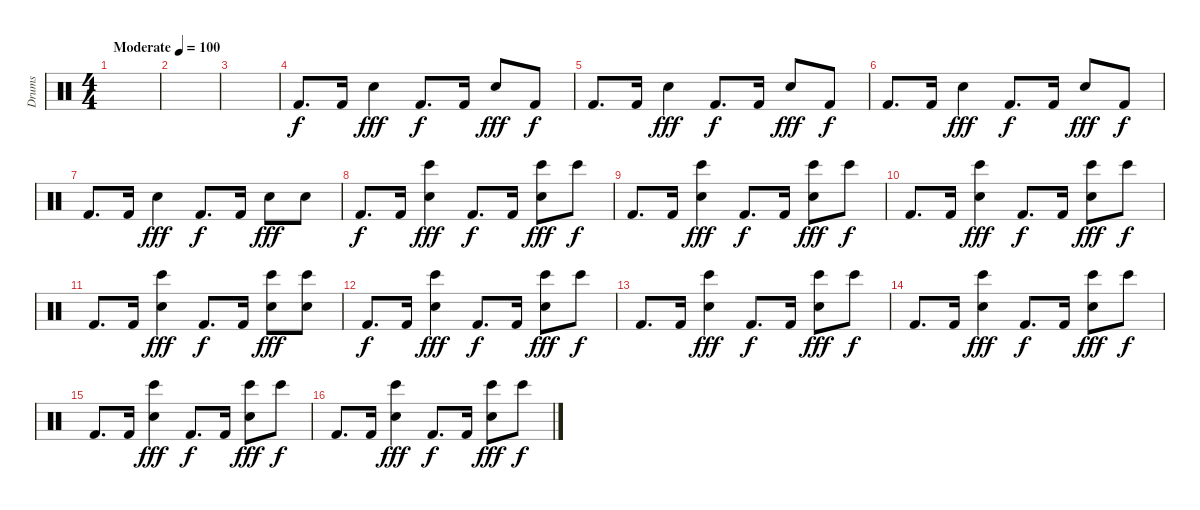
\track ("Drums" "Drums") {instrument percussion}
\staff {score}
\articulation defaults
\ts (4 4)
\tempo (100 "Moderate")
\clef neutral
\ks c
|
|
|
"Kick (hit) 2".8{d} "Kick (hit) 2".16 "Snare (hit) 2".4{dy fff} "Kick (hit) 2".8{d dy f} "Kick (hit) 2".16 "Snare (hit) 2".8{dy fff} "Kick (hit) 2".8{dy f} |
"Kick (hit) 2".8{d} "Kick (hit) 2".16 "Snare (hit) 2".4{dy fff} "Kick (hit) 2".8{d dy f} "Kick (hit) 2".16 "Snare (hit) 2".8{dy fff} "Kick (hit) 2".8{dy f} |
"Kick (hit) 2".8{d} "Kick (hit) 2".16 "Snare (hit) 2".4{dy fff} "Kick (hit) 2".8{d dy f} "Kick (hit) 2".16 "Snare (hit) 2".8{dy fff} "Kick (hit) 2".8{dy f} |
"Kick (hit) 2".8{d} "Kick (hit) 2".16 "Snare (hit) 2".4{dy fff} "Kick (hit) 2".8{d dy f} "Kick (hit) 2".16 "Snare (hit) 2".8{dy fff} "Snare (hit) 2".8 |
"Kick (hit) 2".8{d dy f} "Kick (hit) 2".16 ("Snare (hit) 2" "Bongo High (hit)").4{dy fff} "Kick (hit) 2".8{d dy f} "Kick (hit) 2".16 ("Snare (hit) 2" "Bongo High (hit)").8{dy fff} "Bongo High (hit)".8{dy f} |
"Kick (hit) 2".8{d} "Kick (hit) 2".16 ("Snare (hit) 2" "Bongo High (hit)").4{dy fff} "Kick (hit) 2".8{d dy f} "Kick (hit) 2".16 ("Snare (hit) 2" "Bongo High (hit)").8{dy fff} "Bongo High (hit)".8{dy f} |
"Kick (hit) 2".8{d} "Kick (hit) 2".16 ("Snare (hit) 2" "Bongo High (hit)").4{dy fff} "Kick (hit) 2".8{d dy f} "Kick (hit) 2".16 ("Snare (hit) 2" "Bongo High (hit)").8{dy fff} "Bongo High (hit)".8{dy f} |
"Kick (hit) 2".8{d} "Kick (hit) 2".16 ("Snare (hit) 2" "Bongo High (hit)").4{dy fff} "Kick (hit) 2".8{d dy f} "Kick (hit) 2".16 ("Snare (hit) 2" "Bongo High (hit)").8{dy fff} ("Snare (hit) 2" "Bongo High (hit)").8 |
"Kick (hit) 2".8{d dy f} "Kick (hit) 2".16 ("Snare (hit) 2" "Bongo High (hit)").4{dy fff} "Kick (hit) 2".8{d dy f} "Kick (hit) 2".16 ("Snare (hit) 2" "Bongo High (hit)").8{dy fff} "Bongo High (hit)".8{dy f} |
"Kick (hit) 2".8{d} "Kick (hit) 2".16 ("Snare (hit) 2" "Bongo High (hit)").4{dy fff} "Kick (hit) 2".8{d dy f} "Kick (hit) 2".16 ("Snare (hit) 2" "Bongo High (hit)").8{dy fff} "Bongo High (hit)".8{dy f} |
"Kick (hit) 2".8{d} "Kick (hit) 2".16 ("Snare (hit) 2" "Bongo High (hit)").4{dy fff} "Kick (hit) 2".8{d dy f} "Kick (hit) 2".16 ("Snare (hit) 2" "Bongo High (hit)").8{dy fff} "Bongo High (hit)".8{dy f} |
"Kick (hit) 2".8{d} "Kick (hit) 2".16 ("Snare (hit) 2" "Bongo High (hit)").4{dy fff} "Kick (hit) 2".8{d dy f} "Kick (hit) 2".16 ("Snare (hit) 2" "Bongo High (hit)").8{dy fff} "Bongo High (hit)".8{dy f} |
"Kick (hit) 2".8{d} "Kick (hit) 2".16 ("Snare (hit) 2" "Bongo High (hit)").4{dy fff} "Kick (hit) 2".8{d dy f} "Kick (hit) 2".16 ("Snare (hit) 2" "Bongo High (hit)").8{dy fff} "Bongo High (hit)".8{dy f}
